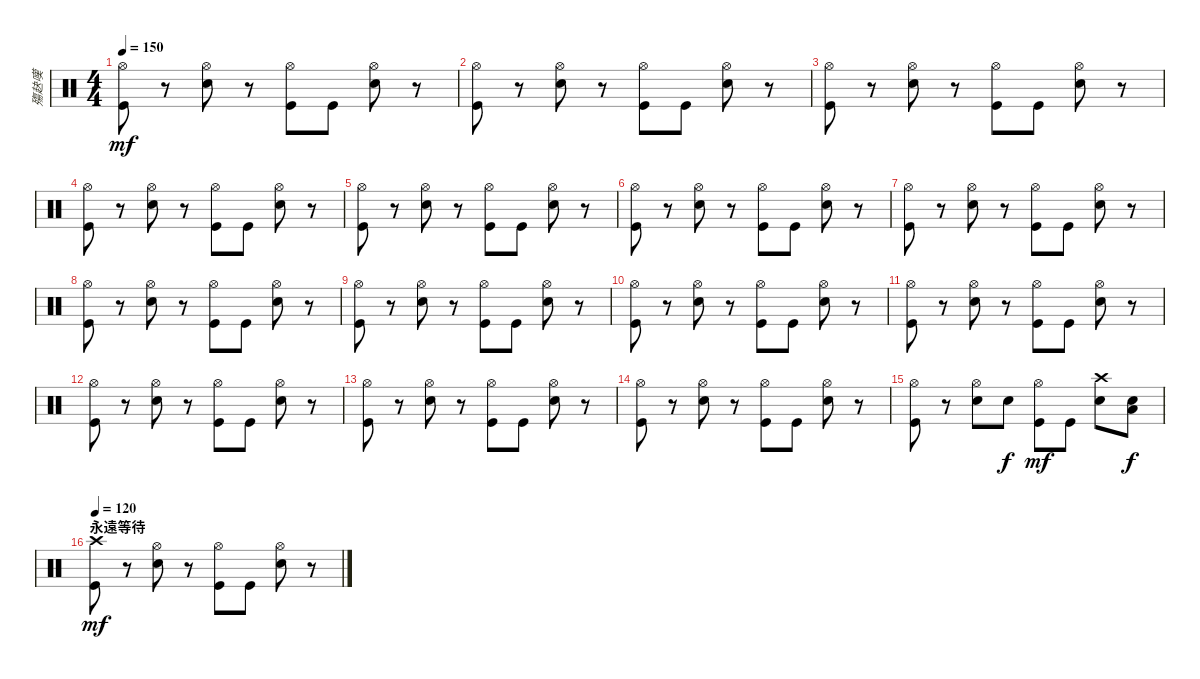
\track ("殤赽嘆" "殤赽嘆") {instrument percussion}
\staff {score}
\articulation defaults
\ts (4 4)
\tempo 150
\clef neutral
\ks c
("Hi-Hat (open)" "Kick (hit)").8{dy mf} r.8 ("Hi-Hat (open)" "Snare (hit) 2").8 r.8 ("Hi-Hat (open)" "Kick (hit)").8 "Kick (hit)".8 ("Hi-Hat (open)" "Snare (hit) 2").8 r.8 |
("Hi-Hat (open)" "Kick (hit)").8 r.8 ("Hi-Hat (open)" "Snare (hit) 2").8 r.8 ("Hi-Hat (open)" "Kick (hit)").8 "Kick (hit)".8 ("Hi-Hat (open)" "Snare (hit) 2").8 r.8 |
("Hi-Hat (open)" "Kick (hit)").8 r.8 ("Hi-Hat (open)" "Snare (hit) 2").8 r.8 ("Hi-Hat (open)" "Kick (hit)").8 "Kick (hit)".8 ("Hi-Hat (open)" "Snare (hit) 2").8 r.8 |
("Hi-Hat (open)" "Kick (hit)").8 r.8 ("Hi-Hat (open)" "Snare (hit) 2").8 r.8 ("Hi-Hat (open)" "Kick (hit)").8 "Kick (hit)".8 ("Hi-Hat (open)" "Snare (hit) 2").8 r.8 |
("Hi-Hat (open)" "Kick (hit)").8 r.8 ("Hi-Hat (open)" "Snare (hit) 2").8 r.8 ("Hi-Hat (open)" "Kick (hit)").8 "Kick (hit)".8 ("Hi-Hat (open)" "Snare (hit) 2").8 r.8 |
("Hi-Hat (open)" "Kick (hit)").8 r.8 ("Hi-Hat (open)" "Snare (hit) 2").8 r.8 ("Hi-Hat (open)" "Kick (hit)").8 "Kick (hit)".8 ("Hi-Hat (open)" "Snare (hit) 2").8 r.8 |
("Hi-Hat (open)" "Kick (hit)").8 r.8 ("Hi-Hat (open)" "Snare (hit) 2").8 r.8 ("Hi-Hat (open)" "Kick (hit)").8 "Kick (hit)".8 ("Hi-Hat (open)" "Snare (hit) 2").8 r.8 |
("Hi-Hat (open)" "Kick (hit)").8 r.8 ("Hi-Hat (open)" "Snare (hit) 2").8 r.8 ("Hi-Hat (open)" "Kick (hit)").8 "Kick (hit)".8 ("Hi-Hat (open)" "Snare (hit) 2").8 r.8 |
("Hi-Hat (open)" "Kick (hit)").8 r.8 ("Hi-Hat (open)" "Snare (hit) 2").8 r.8 ("Hi-Hat (open)" "Kick (hit)").8 "Kick (hit)".8 ("Hi-Hat (open)" "Snare (hit) 2").8 r.8 |
("Hi-Hat (open)" "Kick (hit)").8 r.8 ("Hi-Hat (open)" "Snare (hit) 2").8 r.8 ("Hi-Hat (open)" "Kick (hit)").8 "Kick (hit)".8 ("Hi-Hat (open)" "Snare (hit) 2").8 r.8 |
("Hi-Hat (open)" "Kick (hit)").8 r.8 ("Hi-Hat (open)" "Snare (hit) 2").8 r.8 ("Hi-Hat (open)" "Kick (hit)").8 "Kick (hit)".8 ("Hi-Hat (open)" "Snare (hit) 2").8 r.8 |
("Hi-Hat (open)" "Kick (hit)").8 r.8 ("Hi-Hat (open)" "Snare (hit) 2").8 r.8 ("Hi-Hat (open)" "Kick (hit)").8 "Kick (hit)".8 ("Hi-Hat (open)" "Snare (hit) 2").8 r.8 |
("Hi-Hat (open)" "Kick (hit)").8 r.8 ("Hi-Hat (open)" "Snare (hit) 2").8 r.8 ("Hi-Hat (open)" "Kick (hit)").8 "Kick (hit)".8 ("Hi-Hat (open)" "Snare (hit) 2").8 r.8 |
("Hi-Hat (open)" "Kick (hit)").8 r.8 ("Hi-Hat (open)" "Snare (hit) 2").8 r.8 ("Hi-Hat (open)" "Kick (hit)").8 "Kick (hit)".8 ("Hi-Hat (open)" "Snare (hit) 2").8 r.8 |
("Hi-Hat (open)" "Kick (hit)").8 r.8 ("Hi-Hat (open)" "Snare (hit) 2").8 "Snare (hit) 2".8{dy f} ("Hi-Hat (open)" "Kick (hit)").8{dy mf} "Kick (hit)".8 ("Crash high (hit)" "Snare (hit) 2").8 ("Snare (hit) 2" "Low Tom (hit)").8{dy f} |
\section ("" "永遠等待")
\tempo 120
("Crash high (hit)" "Kick (hit)").8{dy mf} r.8 ("Hi-Hat (open)" "Snare (hit) 2").8 r.8 ("Hi-Hat (open)" "Kick (hit)").8 "Kick (hit)".8 ("Hi-Hat (open)" "Snare (hit) 2").8 r.8
